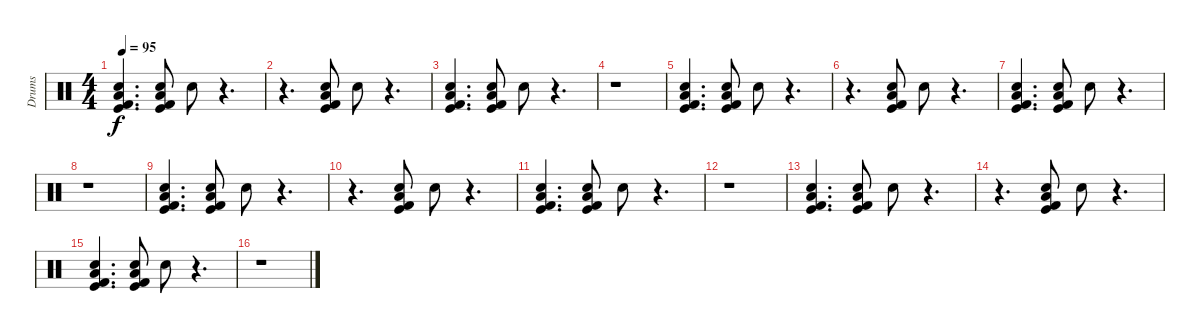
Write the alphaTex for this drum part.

\track ("Drums" "Drums") {instrument percussion}
\staff {score}
\articulation defaults
\ts (4 4)
\tempo 95
\clef neutral
\ks c
("Kick (hit) 2" "Low Floor Tom (hit)" "Kick (hit)" "Snare (hit) 2").4{d dy f} ("Kick (hit) 2" "Low Floor Tom (hit)" "Kick (hit)" "Snare (hit) 2").8 "Snare (hit) 2".8 r.4{d} |
r.4{d} ("Kick (hit) 2" "Low Floor Tom (hit)" "Kick (hit)" "Snare (hit) 2").8 "Snare (hit) 2".8 r.4{d} |
("Kick (hit) 2" "Low Floor Tom (hit)" "Kick (hit)" "Snare (hit) 2").4{d} ("Kick (hit) 2" "Low Floor Tom (hit)" "Kick (hit)" "Snare (hit) 2").8 "Snare (hit) 2".8 r.4{d} |
r.1 |
("Kick (hit) 2" "Low Floor Tom (hit)" "Kick (hit)" "Snare (hit) 2").4{d} ("Kick (hit) 2" "Low Floor Tom (hit)" "Kick (hit)" "Snare (hit) 2").8 "Snare (hit) 2".8 r.4{d} |
r.4{d} ("Kick (hit) 2" "Low Floor Tom (hit)" "Kick (hit)" "Snare (hit) 2").8 "Snare (hit) 2".8 r.4{d} |
("Kick (hit) 2" "Low Floor Tom (hit)" "Kick (hit)" "Snare (hit) 2").4{d} ("Kick (hit) 2" "Low Floor Tom (hit)" "Kick (hit)" "Snare (hit) 2").8 "Snare (hit) 2".8 r.4{d} |
r.1 |
("Kick (hit) 2" "Low Floor Tom (hit)" "Kick (hit)" "Snare (hit) 2").4{d} ("Kick (hit) 2" "Low Floor Tom (hit)" "Kick (hit)" "Snare (hit) 2").8 "Snare (hit) 2".8 r.4{d} |
r.4{d} ("Kick (hit) 2" "Low Floor Tom (hit)" "Kick (hit)" "Snare (hit) 2").8 "Snare (hit) 2".8 r.4{d} |
("Kick (hit) 2" "Low Floor Tom (hit)" "Kick (hit)" "Snare (hit) 2").4{d} ("Kick (hit) 2" "Low Floor Tom (hit)" "Kick (hit)" "Snare (hit) 2").8 "Snare (hit) 2".8 r.4{d} |
r.1 |
("Kick (hit) 2" "Low Floor Tom (hit)" "Kick (hit)" "Snare (hit) 2").4{d} ("Kick (hit) 2" "Low Floor Tom (hit)" "Kick (hit)" "Snare (hit) 2").8 "Snare (hit) 2".8 r.4{d} |
r.4{d} ("Kick (hit) 2" "Low Floor Tom (hit)" "Kick (hit)" "Snare (hit) 2").8 "Snare (hit) 2".8 r.4{d} |
("Kick (hit) 2" "Low Floor Tom (hit)" "Kick (hit)" "Snare (hit) 2").4{d} ("Kick (hit) 2" "Low Floor Tom (hit)" "Kick (hit)" "Snare (hit) 2").8 "Snare (hit) 2".8 r.4{d} |
r.1
